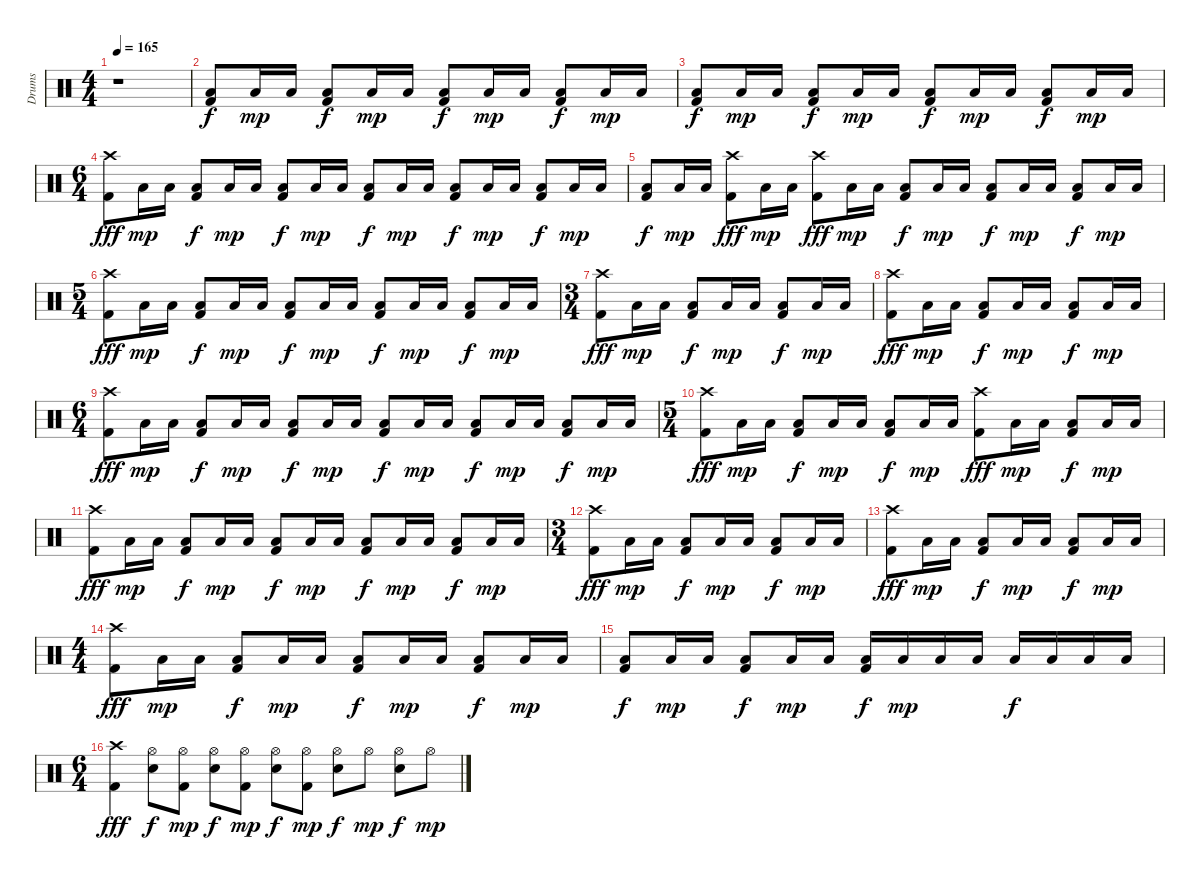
\track ("Drums" "Drums") {instrument percussion}
\staff {score}
\articulation defaults
\ts (4 4)
\tempo 165
\clef neutral
\ks c
r.1{dy f} |
("Low Floor Tom (hit)" "Kick (hit) 2").8 "Low Floor Tom (hit)".16{dy mp} "Low Floor Tom (hit)".16 ("Low Floor Tom (hit)" "Kick (hit) 2").8{dy f} "Low Floor Tom (hit)".16{dy mp} "Low Floor Tom (hit)".16 ("Low Floor Tom (hit)" "Kick (hit) 2").8{dy f} "Low Floor Tom (hit)".16{dy mp} "Low Floor Tom (hit)".16 ("Low Floor Tom (hit)" "Kick (hit) 2").8{dy f} "Low Floor Tom (hit)".16{dy mp} "Low Floor Tom (hit)".16 |
("Low Floor Tom (hit)" "Kick (hit) 2").8{dy f} "Low Floor Tom (hit)".16{dy mp} "Low Floor Tom (hit)".16 ("Low Floor Tom (hit)" "Kick (hit) 2").8{dy f} "Low Floor Tom (hit)".16{dy mp} "Low Floor Tom (hit)".16 ("Low Floor Tom (hit)" "Kick (hit) 2").8{dy f} "Low Floor Tom (hit)".16{dy mp} "Low Floor Tom (hit)".16 ("Low Floor Tom (hit)" "Kick (hit) 2").8{dy f} "Low Floor Tom (hit)".16{dy mp} "Low Floor Tom (hit)".16 |
\ts (6 4)
("Crash high (hit)" "Kick (hit) 2").8{dy fff} "Low Floor Tom (hit)".16{dy mp} "Low Floor Tom (hit)".16 ("Low Floor Tom (hit)" "Kick (hit) 2").8{dy f} "Low Floor Tom (hit)".16{dy mp} "Low Floor Tom (hit)".16 ("Low Floor Tom (hit)" "Kick (hit) 2").8{dy f} "Low Floor Tom (hit)".16{dy mp} "Low Floor Tom (hit)".16 ("Low Floor Tom (hit)" "Kick (hit) 2").8{dy f} "Low Floor Tom (hit)".16{dy mp} "Low Floor Tom (hit)".16 ("Low Floor Tom (hit)" "Kick (hit) 2").8{dy f} "Low Floor Tom (hit)".16{dy mp} "Low Floor Tom (hit)".16 ("Low Floor Tom (hit)" "Kick (hit) 2").8{dy f} "Low Floor Tom (hit)".16{dy mp} "Low Floor Tom (hit)".16 |
("Low Floor Tom (hit)" "Kick (hit) 2").8{dy f} "Low Floor Tom (hit)".16{dy mp} "Low Floor Tom (hit)".16 ("Crash high (hit)" "Kick (hit) 2").8{dy fff} "Low Floor Tom (hit)".16{dy mp} "Low Floor Tom (hit)".16 ("Crash high (hit)" "Kick (hit) 2").8{dy fff} "Low Floor Tom (hit)".16{dy mp} "Low Floor Tom (hit)".16 ("Low Floor Tom (hit)" "Kick (hit) 2").8{dy f} "Low Floor Tom (hit)".16{dy mp} "Low Floor Tom (hit)".16 ("Low Floor Tom (hit)" "Kick (hit) 2").8{dy f} "Low Floor Tom (hit)".16{dy mp} "Low Floor Tom (hit)".16 ("Low Floor Tom (hit)" "Kick (hit) 2").8{dy f} "Low Floor Tom (hit)".16{dy mp} "Low Floor Tom (hit)".16 |
\ts (5 4)
("Crash high (hit)" "Kick (hit) 2").8{dy fff} "Low Floor Tom (hit)".16{dy mp} "Low Floor Tom (hit)".16 ("Low Floor Tom (hit)" "Kick (hit) 2").8{dy f} "Low Floor Tom (hit)".16{dy mp} "Low Floor Tom (hit)".16 ("Low Floor Tom (hit)" "Kick (hit) 2").8{dy f} "Low Floor Tom (hit)".16{dy mp} "Low Floor Tom (hit)".16 ("Low Floor Tom (hit)" "Kick (hit) 2").8{dy f} "Low Floor Tom (hit)".16{dy mp} "Low Floor Tom (hit)".16 ("Low Floor Tom (hit)" "Kick (hit) 2").8{dy f} "Low Floor Tom (hit)".16{dy mp} "Low Floor Tom (hit)".16 |
\ts (3 4)
("Crash high (hit)" "Kick (hit) 2").8{dy fff} "Low Floor Tom (hit)".16{dy mp} "Low Floor Tom (hit)".16 ("Low Floor Tom (hit)" "Kick (hit) 2").8{dy f} "Low Floor Tom (hit)".16{dy mp} "Low Floor Tom (hit)".16 ("Low Floor Tom (hit)" "Kick (hit) 2").8{dy f} "Low Floor Tom (hit)".16{dy mp} "Low Floor Tom (hit)".16 |
("Crash high (hit)" "Kick (hit) 2").8{dy fff} "Low Floor Tom (hit)".16{dy mp} "Low Floor Tom (hit)".16 ("Low Floor Tom (hit)" "Kick (hit) 2").8{dy f} "Low Floor Tom (hit)".16{dy mp} "Low Floor Tom (hit)".16 ("Low Floor Tom (hit)" "Kick (hit) 2").8{dy f} "Low Floor Tom (hit)".16{dy mp} "Low Floor Tom (hit)".16 |
\ts (6 4)
("Crash high (hit)" "Kick (hit) 2").8{dy fff} "Low Floor Tom (hit)".16{dy mp} "Low Floor Tom (hit)".16 ("Low Floor Tom (hit)" "Kick (hit) 2").8{dy f} "Low Floor Tom (hit)".16{dy mp} "Low Floor Tom (hit)".16 ("Low Floor Tom (hit)" "Kick (hit) 2").8{dy f} "Low Floor Tom (hit)".16{dy mp} "Low Floor Tom (hit)".16 ("Low Floor Tom (hit)" "Kick (hit) 2").8{dy f} "Low Floor Tom (hit)".16{dy mp} "Low Floor Tom (hit)".16 ("Low Floor Tom (hit)" "Kick (hit) 2").8{dy f} "Low Floor Tom (hit)".16{dy mp} "Low Floor Tom (hit)".16 ("Low Floor Tom (hit)" "Kick (hit) 2").8{dy f} "Low Floor Tom (hit)".16{dy mp} "Low Floor Tom (hit)".16 |
\ts (5 4)
("Crash high (hit)" "Kick (hit) 2").8{dy fff} "Low Floor Tom (hit)".16{dy mp} "Low Floor Tom (hit)".16 ("Low Floor Tom (hit)" "Kick (hit) 2").8{dy f} "Low Floor Tom (hit)".16{dy mp} "Low Floor Tom (hit)".16 ("Low Floor Tom (hit)" "Kick (hit) 2").8{dy f} "Low Floor Tom (hit)".16{dy mp} "Low Floor Tom (hit)".16 ("Crash high (hit)" "Kick (hit) 2").8{dy fff} "Low Floor Tom (hit)".16{dy mp} "Low Floor Tom (hit)".16 ("Low Floor Tom (hit)" "Kick (hit) 2").8{dy f} "Low Floor Tom (hit)".16{dy mp} "Low Floor Tom (hit)".16 |
("Crash high (hit)" "Kick (hit) 2").8{dy fff} "Low Floor Tom (hit)".16{dy mp} "Low Floor Tom (hit)".16 ("Low Floor Tom (hit)" "Kick (hit) 2").8{dy f} "Low Floor Tom (hit)".16{dy mp} "Low Floor Tom (hit)".16 ("Low Floor Tom (hit)" "Kick (hit) 2").8{dy f} "Low Floor Tom (hit)".16{dy mp} "Low Floor Tom (hit)".16 ("Low Floor Tom (hit)" "Kick (hit) 2").8{dy f} "Low Floor Tom (hit)".16{dy mp} "Low Floor Tom (hit)".16 ("Low Floor Tom (hit)" "Kick (hit) 2").8{dy f} "Low Floor Tom (hit)".16{dy mp} "Low Floor Tom (hit)".16 |
\ts (3 4)
("Crash high (hit)" "Kick (hit) 2").8{dy fff} "Low Floor Tom (hit)".16{dy mp} "Low Floor Tom (hit)".16 ("Low Floor Tom (hit)" "Kick (hit) 2").8{dy f} "Low Floor Tom (hit)".16{dy mp} "Low Floor Tom (hit)".16 ("Low Floor Tom (hit)" "Kick (hit) 2").8{dy f} "Low Floor Tom (hit)".16{dy mp} "Low Floor Tom (hit)".16 |
("Crash high (hit)" "Kick (hit) 2").8{dy fff} "Low Floor Tom (hit)".16{dy mp} "Low Floor Tom (hit)".16 ("Low Floor Tom (hit)" "Kick (hit) 2").8{dy f} "Low Floor Tom (hit)".16{dy mp} "Low Floor Tom (hit)".16 ("Low Floor Tom (hit)" "Kick (hit) 2").8{dy f} "Low Floor Tom (hit)".16{dy mp} "Low Floor Tom (hit)".16 |
\ts (4 4)
("Crash high (hit)" "Kick (hit) 2").8{dy fff} "Low Floor Tom (hit)".16{dy mp} "Low Floor Tom (hit)".16 ("Low Floor Tom (hit)" "Kick (hit) 2").8{dy f} "Low Floor Tom (hit)".16{dy mp} "Low Floor Tom (hit)".16 ("Low Floor Tom (hit)" "Kick (hit) 2").8{dy f} "Low Floor Tom (hit)".16{dy mp} "Low Floor Tom (hit)".16 ("Low Floor Tom (hit)" "Kick (hit) 2").8{dy f} "Low Floor Tom (hit)".16{dy mp} "Low Floor Tom (hit)".16 |
("Low Floor Tom (hit)" "Kick (hit) 2").8{dy f} "Low Floor Tom (hit)".16{dy mp} "Low Floor Tom (hit)".16 ("Low Floor Tom (hit)" "Kick (hit) 2").8{dy f} "Low Floor Tom (hit)".16{dy mp} "Low Floor Tom (hit)".16 ("Low Floor Tom (hit)" "Kick (hit) 2").16{dy f} "Low Floor Tom (hit)".16{dy mp} "Low Floor Tom (hit)".16 "Low Floor Tom (hit)".16 "Low Floor Tom (hit)".16{dy f} "Low Floor Tom (hit)".16 "Low Floor Tom (hit)".16 "Low Floor Tom (hit)".16 |
\ts (6 4)
("Crash high (hit)" "Kick (hit) 2").4{dy fff} ("Hi-Hat (open)" "Electric Snare (hit)").8{dy f} ("Hi-Hat (open)" "Kick (hit) 2").8{dy mp} ("Hi-Hat (open)" "Electric Snare (hit)").8{dy f} ("Hi-Hat (open)" "Kick (hit) 2").8{dy mp} ("Hi-Hat (open)" "Electric Snare (hit)").8{dy f} ("Hi-Hat (open)" "Kick (hit) 2").8{dy mp} ("Hi-Hat (open)" "Electric Snare (hit)").8{dy f} "Hi-Hat (open)".8{dy mp} ("Hi-Hat (open)" "Electric Snare (hit)").8{dy f} "Hi-Hat (open)".8{dy mp}
